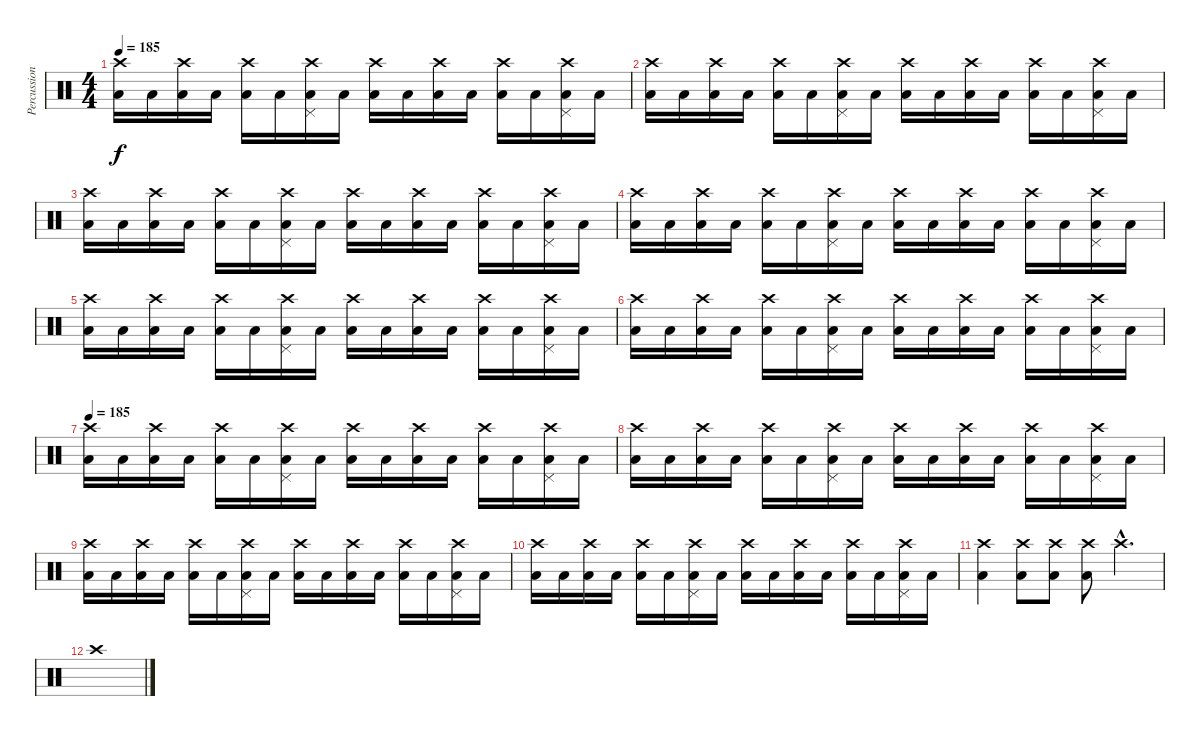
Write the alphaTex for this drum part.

\track ("Percussion" "Percussion") {instrument percussion}
\staff {score}
\articulation defaults
\ts (4 4)
\tempo 185
\clef neutral
\ks c
("Crash high (hit)" "Low Floor Tom (hit)").16{dy f} "Low Floor Tom (hit)".16 ("Crash high (hit)" "Low Floor Tom (hit)").16 "Low Floor Tom (hit)".16 ("Crash high (hit)" "Low Floor Tom (hit)").16 "Low Floor Tom (hit)".16 ("Crash high (hit)" "Pedal Hi-Hat (hit)" "Low Floor Tom (hit)").16 "Low Floor Tom (hit)".16 ("Crash high (hit)" "Low Floor Tom (hit)").16 "Low Floor Tom (hit)".16 ("Crash high (hit)" "Low Floor Tom (hit)").16 "Low Floor Tom (hit)".16 ("Crash high (hit)" "Low Floor Tom (hit)").16 "Low Floor Tom (hit)".16 ("Crash high (hit)" "Pedal Hi-Hat (hit)" "Low Floor Tom (hit)").16 "Low Floor Tom (hit)".16 |
("Crash high (hit)" "Low Floor Tom (hit)").16 "Low Floor Tom (hit)".16 ("Crash high (hit)" "Low Floor Tom (hit)").16 "Low Floor Tom (hit)".16 ("Crash high (hit)" "Low Floor Tom (hit)").16 "Low Floor Tom (hit)".16 ("Crash high (hit)" "Pedal Hi-Hat (hit)" "Low Floor Tom (hit)").16 "Low Floor Tom (hit)".16 ("Crash high (hit)" "Low Floor Tom (hit)").16 "Low Floor Tom (hit)".16 ("Crash high (hit)" "Low Floor Tom (hit)").16 "Low Floor Tom (hit)".16 ("Crash high (hit)" "Low Floor Tom (hit)").16 "Low Floor Tom (hit)".16 ("Crash high (hit)" "Pedal Hi-Hat (hit)" "Low Floor Tom (hit)").16 "Low Floor Tom (hit)".16 |
("Crash high (hit)" "Low Floor Tom (hit)").16 "Low Floor Tom (hit)".16 ("Crash high (hit)" "Low Floor Tom (hit)").16 "Low Floor Tom (hit)".16 ("Crash high (hit)" "Low Floor Tom (hit)").16 "Low Floor Tom (hit)".16 ("Crash high (hit)" "Pedal Hi-Hat (hit)" "Low Floor Tom (hit)").16 "Low Floor Tom (hit)".16 ("Crash high (hit)" "Low Floor Tom (hit)").16 "Low Floor Tom (hit)".16 ("Crash high (hit)" "Low Floor Tom (hit)").16 "Low Floor Tom (hit)".16 ("Crash high (hit)" "Low Floor Tom (hit)").16 "Low Floor Tom (hit)".16 ("Crash high (hit)" "Pedal Hi-Hat (hit)" "Low Floor Tom (hit)").16 "Low Floor Tom (hit)".16 |
("Crash high (hit)" "Low Floor Tom (hit)").16 "Low Floor Tom (hit)".16 ("Crash high (hit)" "Low Floor Tom (hit)").16 "Low Floor Tom (hit)".16 ("Crash high (hit)" "Low Floor Tom (hit)").16 "Low Floor Tom (hit)".16 ("Crash high (hit)" "Pedal Hi-Hat (hit)" "Low Floor Tom (hit)").16 "Low Floor Tom (hit)".16 ("Crash high (hit)" "Low Floor Tom (hit)").16 "Low Floor Tom (hit)".16 ("Crash high (hit)" "Low Floor Tom (hit)").16 "Low Floor Tom (hit)".16 ("Crash high (hit)" "Low Floor Tom (hit)").16 "Low Floor Tom (hit)".16 ("Crash high (hit)" "Pedal Hi-Hat (hit)" "Low Floor Tom (hit)").16 "Low Floor Tom (hit)".16 |
("Crash high (hit)" "Low Floor Tom (hit)").16 "Low Floor Tom (hit)".16 ("Crash high (hit)" "Low Floor Tom (hit)").16 "Low Floor Tom (hit)".16 ("Crash high (hit)" "Low Floor Tom (hit)").16 "Low Floor Tom (hit)".16 ("Crash high (hit)" "Pedal Hi-Hat (hit)" "Low Floor Tom (hit)").16 "Low Floor Tom (hit)".16 ("Crash high (hit)" "Low Floor Tom (hit)").16 "Low Floor Tom (hit)".16 ("Crash high (hit)" "Low Floor Tom (hit)").16 "Low Floor Tom (hit)".16 ("Crash high (hit)" "Low Floor Tom (hit)").16 "Low Floor Tom (hit)".16 ("Crash high (hit)" "Pedal Hi-Hat (hit)" "Low Floor Tom (hit)").16 "Low Floor Tom (hit)".16 |
("Crash high (hit)" "Low Floor Tom (hit)").16 "Low Floor Tom (hit)".16 ("Crash high (hit)" "Low Floor Tom (hit)").16 "Low Floor Tom (hit)".16 ("Crash high (hit)" "Low Floor Tom (hit)").16 "Low Floor Tom (hit)".16 ("Crash high (hit)" "Pedal Hi-Hat (hit)" "Low Floor Tom (hit)").16 "Low Floor Tom (hit)".16 ("Crash high (hit)" "Low Floor Tom (hit)").16 "Low Floor Tom (hit)".16 ("Crash high (hit)" "Low Floor Tom (hit)").16 "Low Floor Tom (hit)".16 ("Crash high (hit)" "Low Floor Tom (hit)").16 "Low Floor Tom (hit)".16 ("Crash high (hit)" "Pedal Hi-Hat (hit)" "Low Floor Tom (hit)").16 "Low Floor Tom (hit)".16 |
\tempo 185
("Crash high (hit)" "Low Floor Tom (hit)").16 "Low Floor Tom (hit)".16 ("Crash high (hit)" "Low Floor Tom (hit)").16 "Low Floor Tom (hit)".16 ("Crash high (hit)" "Low Floor Tom (hit)").16 "Low Floor Tom (hit)".16 ("Crash high (hit)" "Pedal Hi-Hat (hit)" "Low Floor Tom (hit)").16 "Low Floor Tom (hit)".16 ("Crash high (hit)" "Low Floor Tom (hit)").16 "Low Floor Tom (hit)".16 ("Crash high (hit)" "Low Floor Tom (hit)").16 "Low Floor Tom (hit)".16 ("Crash high (hit)" "Low Floor Tom (hit)").16 "Low Floor Tom (hit)".16 ("Crash high (hit)" "Pedal Hi-Hat (hit)" "Low Floor Tom (hit)").16 "Low Floor Tom (hit)".16 |
("Crash high (hit)" "Low Floor Tom (hit)").16 "Low Floor Tom (hit)".16 ("Crash high (hit)" "Low Floor Tom (hit)").16 "Low Floor Tom (hit)".16 ("Crash high (hit)" "Low Floor Tom (hit)").16 "Low Floor Tom (hit)".16 ("Crash high (hit)" "Pedal Hi-Hat (hit)" "Low Floor Tom (hit)").16 "Low Floor Tom (hit)".16 ("Crash high (hit)" "Low Floor Tom (hit)").16 "Low Floor Tom (hit)".16 ("Crash high (hit)" "Low Floor Tom (hit)").16 "Low Floor Tom (hit)".16 ("Crash high (hit)" "Low Floor Tom (hit)").16 "Low Floor Tom (hit)".16 ("Crash high (hit)" "Pedal Hi-Hat (hit)" "Low Floor Tom (hit)").16 "Low Floor Tom (hit)".16 |
("Crash high (hit)" "Low Floor Tom (hit)").16 "Low Floor Tom (hit)".16 ("Crash high (hit)" "Low Floor Tom (hit)").16 "Low Floor Tom (hit)".16 ("Crash high (hit)" "Low Floor Tom (hit)").16 "Low Floor Tom (hit)".16 ("Crash high (hit)" "Pedal Hi-Hat (hit)" "Low Floor Tom (hit)").16 "Low Floor Tom (hit)".16 ("Crash high (hit)" "Low Floor Tom (hit)").16 "Low Floor Tom (hit)".16 ("Crash high (hit)" "Low Floor Tom (hit)").16 "Low Floor Tom (hit)".16 ("Crash high (hit)" "Low Floor Tom (hit)").16 "Low Floor Tom (hit)".16 ("Crash high (hit)" "Pedal Hi-Hat (hit)" "Low Floor Tom (hit)").16 "Low Floor Tom (hit)".16 |
("Crash high (hit)" "Low Floor Tom (hit)").16 "Low Floor Tom (hit)".16 ("Crash high (hit)" "Low Floor Tom (hit)").16 "Low Floor Tom (hit)".16 ("Crash high (hit)" "Low Floor Tom (hit)").16 "Low Floor Tom (hit)".16 ("Crash high (hit)" "Pedal Hi-Hat (hit)" "Low Floor Tom (hit)").16 "Low Floor Tom (hit)".16 ("Crash high (hit)" "Low Floor Tom (hit)").16 "Low Floor Tom (hit)".16 ("Crash high (hit)" "Low Floor Tom (hit)").16 "Low Floor Tom (hit)".16 ("Crash high (hit)" "Low Floor Tom (hit)").16 "Low Floor Tom (hit)".16 ("Crash high (hit)" "Pedal Hi-Hat (hit)" "Low Floor Tom (hit)").16 "Low Floor Tom (hit)".16 |
("Crash high (hit)" "Low Floor Tom (hit)").4 ("Crash high (hit)" "Low Floor Tom (hit)").8 ("Crash high (hit)" "Low Floor Tom (hit)").8 ("Crash high (hit)" "Low Floor Tom (hit)").8 "Crash high (hit)"{hac}.4{d} |
"Crash high (hit)".1
